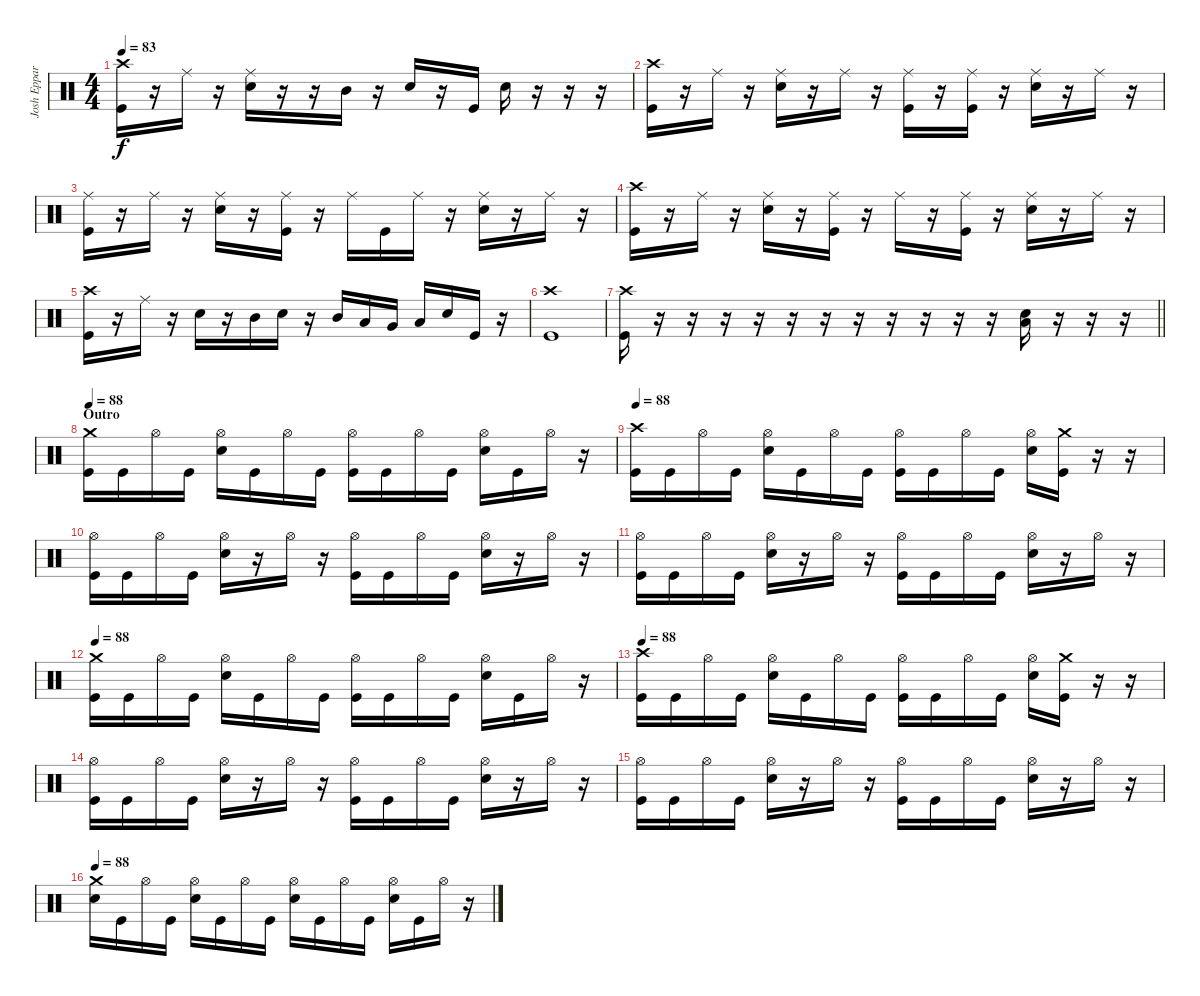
\track ("Josh Eppard (Drums)" "Josh Eppar") {instrument percussion}
\staff {score}
\articulation defaults
\ts (4 4)
\tempo 83
\clef neutral
\ks c
("Crash high (hit)" "Kick (hit)").16{dy f} r.16 "Ride (middle)".16 r.16 ("Ride (middle)" "Electric Snare (hit)").16 r.16 r.16 "Mid Tom (hit)".16 r.16 "Electric Snare (hit)".16 r.16 "Kick (hit)".16 "Electric Snare (hit)".16 r.16 r.16 r.16 |
("Crash high (hit)" "Kick (hit)").16 r.16 "Ride (middle)".16 r.16 ("Ride (middle)" "Electric Snare (hit)").16 r.16 "Ride (middle)".16 r.16 ("Ride (middle)" "Kick (hit)").16 r.16 ("Ride (middle)" "Kick (hit)").16 r.16 ("Ride (middle)" "Electric Snare (hit)").16 r.16 "Ride (middle)".16 r.16 |
("Ride (middle)" "Kick (hit)").16 r.16 "Ride (middle)".16 r.16 ("Ride (middle)" "Electric Snare (hit)").16 r.16 ("Ride (middle)" "Kick (hit)").16 r.16 "Ride (middle)".16 "Kick (hit)".16 "Ride (middle)".16 r.16 ("Ride (middle)" "Electric Snare (hit)").16 r.16 "Ride (middle)".16 r.16 |
("Crash high (hit)" "Kick (hit)").16 r.16 "Ride (middle)".16 r.16 ("Ride (middle)" "Electric Snare (hit)").16 r.16 ("Ride (middle)" "Kick (hit)").16 r.16 "Ride (middle)".16 r.16 ("Ride (middle)" "Kick (hit)").16 r.16 ("Ride (middle)" "Electric Snare (hit)").16 r.16 "Ride (middle)".16 r.16 |
("Crash high (hit)" "Kick (hit)").16 r.16 "Ride (middle)".16 r.16 "Electric Snare (hit)".16 r.16 "Mid Tom (hit)".16 "Electric Snare (hit)".16 r.16 "Mid Tom (hit)".16 "Low Tom (hit)".16 "Very Low Tom (hit)".16 "Low Floor Tom (hit)".16 "Electric Snare (hit)".16 "Kick (hit)".16 r.16 |
("Crash high (hit)" "Kick (hit)").1 |
\barLineRight lightlight
("Crash high (hit)" "Kick (hit)").16 r.16 r.16 r.16 r.16 r.16 r.16 r.16 r.16 r.16 r.16 r.16 ("Low Floor Tom (hit)" "Electric Snare (hit)").16 r.16 r.16 r.16 |
\section ("" "Outro")
\tempo 88
("Crash medium (hit)" "Kick (hit)").16 "Kick (hit)".16 "Hi-Hat (open)".16 "Kick (hit)".16 ("Hi-Hat (open)" "Electric Snare (hit)").16 "Kick (hit)".16 "Hi-Hat (open)".16 "Kick (hit)".16 ("Hi-Hat (open)" "Kick (hit)").16 "Kick (hit)".16 "Hi-Hat (open)".16 "Kick (hit)".16 ("Hi-Hat (open)" "Electric Snare (hit)").16 "Kick (hit)".16 "Hi-Hat (open)".16 r.16 |
\tempo 88
("Crash high (hit)" "Kick (hit)").16 "Kick (hit)".16 "Hi-Hat (open)".16 "Kick (hit)".16 ("Hi-Hat (open)" "Electric Snare (hit)").16 "Kick (hit)".16 "Hi-Hat (open)".16 "Kick (hit)".16 ("Hi-Hat (open)" "Kick (hit)").16 "Kick (hit)".16 "Hi-Hat (open)".16 "Kick (hit)".16 ("Hi-Hat (open)" "Electric Snare (hit)").16 ("Crash medium (hit)" "Kick (hit)").16 r.16 r.16 |
("Hi-Hat (open)" "Kick (hit)").16 "Kick (hit)".16 "Hi-Hat (open)".16 "Kick (hit)".16 ("Hi-Hat (open)" "Electric Snare (hit)").16 r.16 "Hi-Hat (open)".16 r.16 ("Hi-Hat (open)" "Kick (hit)").16 "Kick (hit)".16 "Hi-Hat (open)".16 "Kick (hit)".16 ("Hi-Hat (open)" "Electric Snare (hit)").16 r.16 "Hi-Hat (open)".16 r.16 |
("Hi-Hat (open)" "Kick (hit)").16 "Kick (hit)".16 "Hi-Hat (open)".16 "Kick (hit)".16 ("Hi-Hat (open)" "Electric Snare (hit)").16 r.16 "Hi-Hat (open)".16 r.16 ("Hi-Hat (open)" "Kick (hit)").16 "Kick (hit)".16 "Hi-Hat (open)".16 "Kick (hit)".16 ("Hi-Hat (open)" "Electric Snare (hit)").16 r.16 "Hi-Hat (open)".16 r.16 |
\tempo 88
("Crash medium (hit)" "Kick (hit)").16 "Kick (hit)".16 "Hi-Hat (open)".16 "Kick (hit)".16 ("Hi-Hat (open)" "Electric Snare (hit)").16 "Kick (hit)".16 "Hi-Hat (open)".16 "Kick (hit)".16 ("Hi-Hat (open)" "Kick (hit)").16 "Kick (hit)".16 "Hi-Hat (open)".16 "Kick (hit)".16 ("Hi-Hat (open)" "Electric Snare (hit)").16 "Kick (hit)".16 "Hi-Hat (open)".16 r.16 |
\tempo 88
("Crash high (hit)" "Kick (hit)").16 "Kick (hit)".16 "Hi-Hat (open)".16 "Kick (hit)".16 ("Hi-Hat (open)" "Electric Snare (hit)").16 "Kick (hit)".16 "Hi-Hat (open)".16 "Kick (hit)".16 ("Hi-Hat (open)" "Kick (hit)").16 "Kick (hit)".16 "Hi-Hat (open)".16 "Kick (hit)".16 ("Hi-Hat (open)" "Electric Snare (hit)").16 ("Crash medium (hit)" "Kick (hit)").16 r.16 r.16 |
("Hi-Hat (open)" "Kick (hit)").16 "Kick (hit)".16 "Hi-Hat (open)".16 "Kick (hit)".16 ("Hi-Hat (open)" "Electric Snare (hit)").16 r.16 "Hi-Hat (open)".16 r.16 ("Hi-Hat (open)" "Kick (hit)").16 "Kick (hit)".16 "Hi-Hat (open)".16 "Kick (hit)".16 ("Hi-Hat (open)" "Electric Snare (hit)").16 r.16 "Hi-Hat (open)".16 r.16 |
("Hi-Hat (open)" "Kick (hit)").16 "Kick (hit)".16 "Hi-Hat (open)".16 "Kick (hit)".16 ("Hi-Hat (open)" "Electric Snare (hit)").16 r.16 "Hi-Hat (open)".16 r.16 ("Hi-Hat (open)" "Kick (hit)").16 "Kick (hit)".16 "Hi-Hat (open)".16 "Kick (hit)".16 ("Hi-Hat (open)" "Electric Snare (hit)").16 r.16 "Hi-Hat (open)".16 r.16 |
\tempo 88
("Crash medium (hit)" "Electric Snare (hit)").16 "Kick (hit)".16 "Hi-Hat (open)".16 "Kick (hit)".16 ("Hi-Hat (open)" "Electric Snare (hit)").16 "Kick (hit)".16 "Hi-Hat (open)".16 "Kick (hit)".16 ("Hi-Hat (open)" "Electric Snare (hit)").16 "Kick (hit)".16 "Hi-Hat (open)".16 "Kick (hit)".16 ("Hi-Hat (open)" "Electric Snare (hit)").16 "Kick (hit)".16 "Hi-Hat (open)".16 r.16
